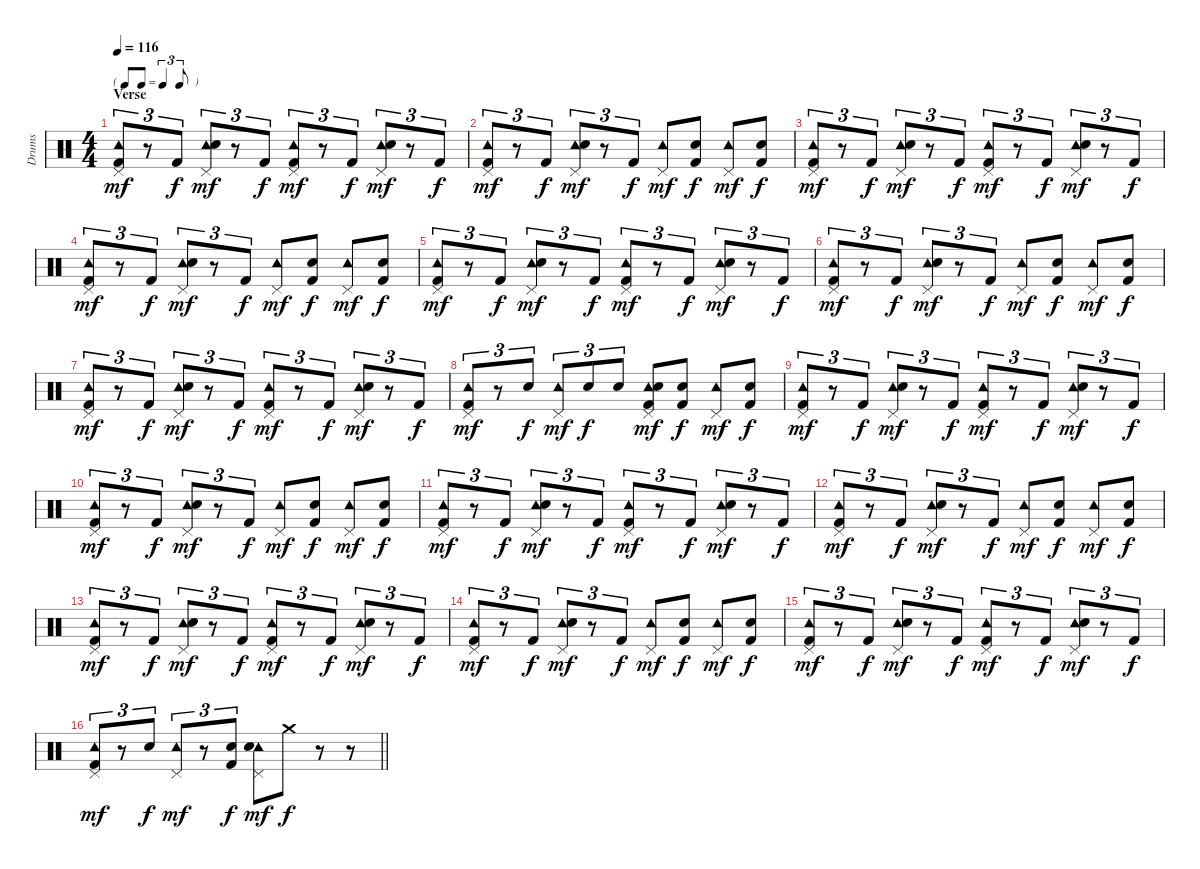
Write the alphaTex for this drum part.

\track ("Drums" "Drums") {instrument percussion}
\staff {score}
\articulation defaults
\ts (4 4)
\tf triplet8th
\section ("" "Verse")
\tempo 116
\clef neutral
\ks c
("Tambourine (hit)" "Pedal Hi-Hat (hit)" "Kick (hit) 2").8{tu (3 2) dy mf} r.8{tu (3 2)} "Kick (hit) 2".8{tu (3 2) dy f} ("Tambourine (hit)" "Pedal Hi-Hat (hit)" "Snare (hit) 2").8{tu (3 2) dy mf} r.8{tu (3 2)} "Kick (hit) 2".8{tu (3 2) dy f} ("Tambourine (hit)" "Pedal Hi-Hat (hit)" "Kick (hit) 2").8{tu (3 2) dy mf} r.8{tu (3 2)} "Kick (hit) 2".8{tu (3 2) dy f} ("Tambourine (hit)" "Pedal Hi-Hat (hit)" "Snare (hit) 2").8{tu (3 2) dy mf} r.8{tu (3 2)} "Kick (hit) 2".8{tu (3 2) dy f} |
("Tambourine (hit)" "Pedal Hi-Hat (hit)" "Kick (hit) 2").8{tu (3 2) dy mf} r.8{tu (3 2)} "Kick (hit) 2".8{tu (3 2) dy f} ("Tambourine (hit)" "Pedal Hi-Hat (hit)" "Snare (hit) 2").8{tu (3 2) dy mf} r.8{tu (3 2)} "Kick (hit) 2".8{tu (3 2) dy f} ("Tambourine (hit)" "Pedal Hi-Hat (hit)").8{dy mf} ("Snare (hit) 2" "Kick (hit) 2").8{dy f} ("Tambourine (hit)" "Pedal Hi-Hat (hit)").8{dy mf} ("Snare (hit) 2" "Kick (hit) 2").8{dy f} |
("Tambourine (hit)" "Pedal Hi-Hat (hit)" "Kick (hit) 2").8{tu (3 2) dy mf} r.8{tu (3 2)} "Kick (hit) 2".8{tu (3 2) dy f} ("Tambourine (hit)" "Pedal Hi-Hat (hit)" "Snare (hit) 2").8{tu (3 2) dy mf} r.8{tu (3 2)} "Kick (hit) 2".8{tu (3 2) dy f} ("Tambourine (hit)" "Pedal Hi-Hat (hit)" "Kick (hit) 2").8{tu (3 2) dy mf} r.8{tu (3 2)} "Kick (hit) 2".8{tu (3 2) dy f} ("Tambourine (hit)" "Pedal Hi-Hat (hit)" "Snare (hit) 2").8{tu (3 2) dy mf} r.8{tu (3 2)} "Kick (hit) 2".8{tu (3 2) dy f} |
("Tambourine (hit)" "Pedal Hi-Hat (hit)" "Kick (hit) 2").8{tu (3 2) dy mf} r.8{tu (3 2)} "Kick (hit) 2".8{tu (3 2) dy f} ("Tambourine (hit)" "Pedal Hi-Hat (hit)" "Snare (hit) 2").8{tu (3 2) dy mf} r.8{tu (3 2)} "Kick (hit) 2".8{tu (3 2) dy f} ("Tambourine (hit)" "Pedal Hi-Hat (hit)").8{dy mf} ("Snare (hit) 2" "Kick (hit) 2").8{dy f} ("Tambourine (hit)" "Pedal Hi-Hat (hit)").8{dy mf} ("Snare (hit) 2" "Kick (hit) 2").8{dy f} |
("Tambourine (hit)" "Pedal Hi-Hat (hit)" "Kick (hit) 2").8{tu (3 2) dy mf} r.8{tu (3 2)} "Kick (hit) 2".8{tu (3 2) dy f} ("Tambourine (hit)" "Pedal Hi-Hat (hit)" "Snare (hit) 2").8{tu (3 2) dy mf} r.8{tu (3 2)} "Kick (hit) 2".8{tu (3 2) dy f} ("Tambourine (hit)" "Pedal Hi-Hat (hit)" "Kick (hit) 2").8{tu (3 2) dy mf} r.8{tu (3 2)} "Kick (hit) 2".8{tu (3 2) dy f} ("Tambourine (hit)" "Pedal Hi-Hat (hit)" "Snare (hit) 2").8{tu (3 2) dy mf} r.8{tu (3 2)} "Kick (hit) 2".8{tu (3 2) dy f} |
("Tambourine (hit)" "Pedal Hi-Hat (hit)" "Kick (hit) 2").8{tu (3 2) dy mf} r.8{tu (3 2)} "Kick (hit) 2".8{tu (3 2) dy f} ("Tambourine (hit)" "Pedal Hi-Hat (hit)" "Snare (hit) 2").8{tu (3 2) dy mf} r.8{tu (3 2)} "Kick (hit) 2".8{tu (3 2) dy f} ("Tambourine (hit)" "Pedal Hi-Hat (hit)").8{dy mf} ("Snare (hit) 2" "Kick (hit) 2").8{dy f} ("Tambourine (hit)" "Pedal Hi-Hat (hit)").8{dy mf} ("Snare (hit) 2" "Kick (hit) 2").8{dy f} |
("Tambourine (hit)" "Pedal Hi-Hat (hit)" "Kick (hit) 2").8{tu (3 2) dy mf} r.8{tu (3 2)} "Kick (hit) 2".8{tu (3 2) dy f} ("Tambourine (hit)" "Pedal Hi-Hat (hit)" "Snare (hit) 2").8{tu (3 2) dy mf} r.8{tu (3 2)} "Kick (hit) 2".8{tu (3 2) dy f} ("Tambourine (hit)" "Pedal Hi-Hat (hit)" "Kick (hit) 2").8{tu (3 2) dy mf} r.8{tu (3 2)} "Kick (hit) 2".8{tu (3 2) dy f} ("Tambourine (hit)" "Pedal Hi-Hat (hit)" "Snare (hit) 2").8{tu (3 2) dy mf} r.8{tu (3 2)} "Kick (hit) 2".8{tu (3 2) dy f} |
("Tambourine (hit)" "Pedal Hi-Hat (hit)" "Kick (hit) 2").8{tu (3 2) dy mf} r.8{tu (3 2)} "Snare (hit) 2".8{tu (3 2) dy f} ("Tambourine (hit)" "Pedal Hi-Hat (hit)").8{tu (3 2) dy mf} "Snare (hit) 2".8{tu (3 2) dy f} "Snare (hit) 2".8{tu (3 2)} ("Tambourine (hit)" "Pedal Hi-Hat (hit)" "Snare (hit) 2" "Kick (hit) 2").8{dy mf} ("Snare (hit) 2" "Kick (hit) 2").8{dy f} ("Tambourine (hit)" "Pedal Hi-Hat (hit)").8{dy mf} ("Snare (hit) 2" "Kick (hit) 2").8{dy f} |
("Tambourine (hit)" "Pedal Hi-Hat (hit)" "Kick (hit) 2").8{tu (3 2) dy mf} r.8{tu (3 2)} "Kick (hit) 2".8{tu (3 2) dy f} ("Tambourine (hit)" "Pedal Hi-Hat (hit)" "Snare (hit) 2").8{tu (3 2) dy mf} r.8{tu (3 2)} "Kick (hit) 2".8{tu (3 2) dy f} ("Tambourine (hit)" "Pedal Hi-Hat (hit)" "Kick (hit) 2").8{tu (3 2) dy mf} r.8{tu (3 2)} "Kick (hit) 2".8{tu (3 2) dy f} ("Tambourine (hit)" "Pedal Hi-Hat (hit)" "Snare (hit) 2").8{tu (3 2) dy mf} r.8{tu (3 2)} "Kick (hit) 2".8{tu (3 2) dy f} |
("Tambourine (hit)" "Pedal Hi-Hat (hit)" "Kick (hit) 2").8{tu (3 2) dy mf} r.8{tu (3 2)} "Kick (hit) 2".8{tu (3 2) dy f} ("Tambourine (hit)" "Pedal Hi-Hat (hit)" "Snare (hit) 2").8{tu (3 2) dy mf} r.8{tu (3 2)} "Kick (hit) 2".8{tu (3 2) dy f} ("Tambourine (hit)" "Pedal Hi-Hat (hit)").8{dy mf} ("Snare (hit) 2" "Kick (hit) 2").8{dy f} ("Tambourine (hit)" "Pedal Hi-Hat (hit)").8{dy mf} ("Snare (hit) 2" "Kick (hit) 2").8{dy f} |
("Tambourine (hit)" "Pedal Hi-Hat (hit)" "Kick (hit) 2").8{tu (3 2) dy mf} r.8{tu (3 2)} "Kick (hit) 2".8{tu (3 2) dy f} ("Tambourine (hit)" "Pedal Hi-Hat (hit)" "Snare (hit) 2").8{tu (3 2) dy mf} r.8{tu (3 2)} "Kick (hit) 2".8{tu (3 2) dy f} ("Tambourine (hit)" "Pedal Hi-Hat (hit)" "Kick (hit) 2").8{tu (3 2) dy mf} r.8{tu (3 2)} "Kick (hit) 2".8{tu (3 2) dy f} ("Tambourine (hit)" "Pedal Hi-Hat (hit)" "Snare (hit) 2").8{tu (3 2) dy mf} r.8{tu (3 2)} "Kick (hit) 2".8{tu (3 2) dy f} |
("Tambourine (hit)" "Pedal Hi-Hat (hit)" "Kick (hit) 2").8{tu (3 2) dy mf} r.8{tu (3 2)} "Kick (hit) 2".8{tu (3 2) dy f} ("Tambourine (hit)" "Pedal Hi-Hat (hit)" "Snare (hit) 2").8{tu (3 2) dy mf} r.8{tu (3 2)} "Kick (hit) 2".8{tu (3 2) dy f} ("Tambourine (hit)" "Pedal Hi-Hat (hit)").8{dy mf} ("Snare (hit) 2" "Kick (hit) 2").8{dy f} ("Tambourine (hit)" "Pedal Hi-Hat (hit)").8{dy mf} ("Snare (hit) 2" "Kick (hit) 2").8{dy f} |
("Tambourine (hit)" "Pedal Hi-Hat (hit)" "Kick (hit) 2").8{tu (3 2) dy mf} r.8{tu (3 2)} "Kick (hit) 2".8{tu (3 2) dy f} ("Tambourine (hit)" "Pedal Hi-Hat (hit)" "Snare (hit) 2").8{tu (3 2) dy mf} r.8{tu (3 2)} "Kick (hit) 2".8{tu (3 2) dy f} ("Tambourine (hit)" "Pedal Hi-Hat (hit)" "Kick (hit) 2").8{tu (3 2) dy mf} r.8{tu (3 2)} "Kick (hit) 2".8{tu (3 2) dy f} ("Tambourine (hit)" "Pedal Hi-Hat (hit)" "Snare (hit) 2").8{tu (3 2) dy mf} r.8{tu (3 2)} "Kick (hit) 2".8{tu (3 2) dy f} |
("Tambourine (hit)" "Pedal Hi-Hat (hit)" "Kick (hit) 2").8{tu (3 2) dy mf} r.8{tu (3 2)} "Kick (hit) 2".8{tu (3 2) dy f} ("Tambourine (hit)" "Pedal Hi-Hat (hit)" "Snare (hit) 2").8{tu (3 2) dy mf} r.8{tu (3 2)} "Kick (hit) 2".8{tu (3 2) dy f} ("Tambourine (hit)" "Pedal Hi-Hat (hit)").8{dy mf} ("Snare (hit) 2" "Kick (hit) 2").8{dy f} ("Tambourine (hit)" "Pedal Hi-Hat (hit)").8{dy mf} ("Snare (hit) 2" "Kick (hit) 2").8{dy f} |
("Tambourine (hit)" "Pedal Hi-Hat (hit)" "Kick (hit) 2").8{tu (3 2) dy mf} r.8{tu (3 2)} "Kick (hit) 2".8{tu (3 2) dy f} ("Tambourine (hit)" "Pedal Hi-Hat (hit)" "Snare (hit) 2").8{tu (3 2) dy mf} r.8{tu (3 2)} "Kick (hit) 2".8{tu (3 2) dy f} ("Tambourine (hit)" "Pedal Hi-Hat (hit)" "Kick (hit) 2").8{tu (3 2) dy mf} r.8{tu (3 2)} "Kick (hit) 2".8{tu (3 2) dy f} ("Tambourine (hit)" "Pedal Hi-Hat (hit)" "Snare (hit) 2").8{tu (3 2) dy mf} r.8{tu (3 2)} "Kick (hit) 2".8{tu (3 2) dy f} |
\barLineRight lightlight
("Tambourine (hit)" "Pedal Hi-Hat (hit)" "Kick (hit) 2").8{tu (3 2) dy mf} r.8{tu (3 2)} "Snare (hit) 2".8{tu (3 2) dy f} ("Tambourine (hit)" "Pedal Hi-Hat (hit)").8{tu (3 2) dy mf} r.8{tu (3 2)} ("Snare (hit) 2" "Kick (hit) 2").8{tu (3 2) dy f} ("Tambourine (hit)" "Pedal Hi-Hat (hit)" "Snare (hit) 2").8{dy mf} "Crash medium (hit)".8{dy f} r.8 r.8
